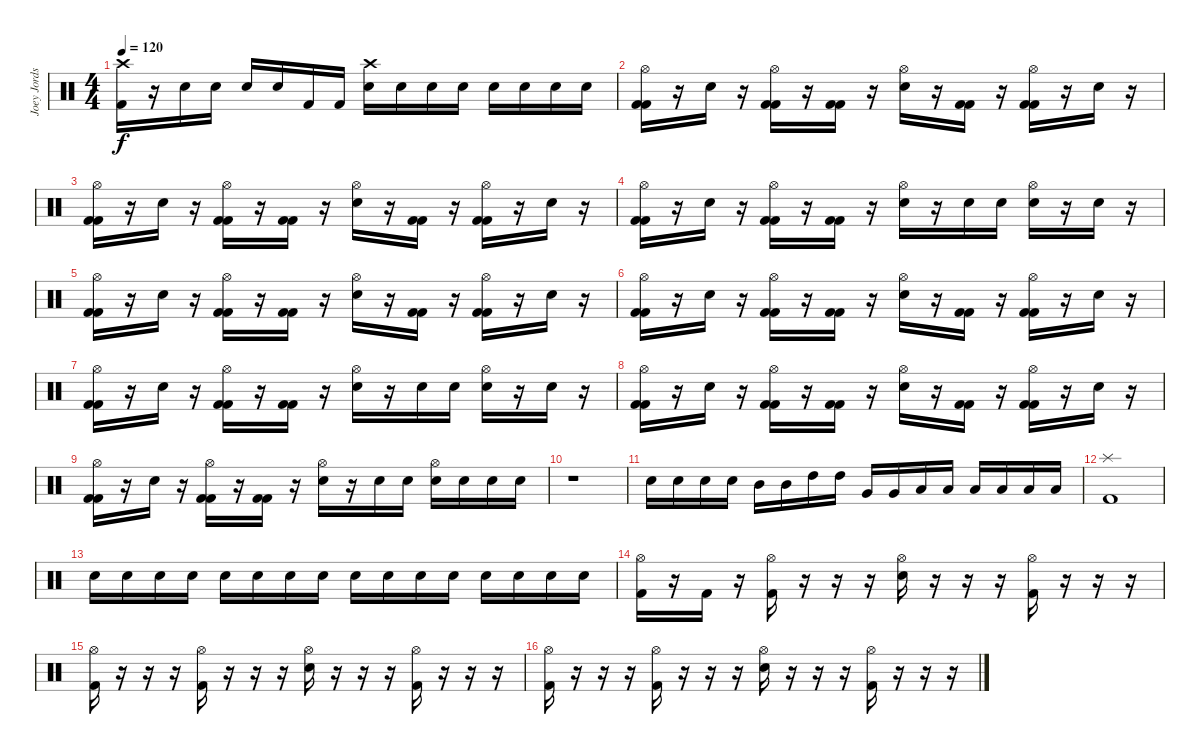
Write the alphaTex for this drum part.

\track ("Joey Jordson" "Joey Jords") {instrument percussion}
\staff {score}
\articulation defaults
\ts (4 4)
\tempo 120
\clef neutral
\ks c
("Crash high (hit)" "Kick (hit) 2").16{dy f} r.16 "Electric Snare (hit)".16 "Electric Snare (hit)".16 "Electric Snare (hit)".16 "Electric Snare (hit)".16 "Kick (hit) 2".16 "Kick (hit) 2".16 ("Crash high (hit)" "Electric Snare (hit)").16 "Electric Snare (hit)".16 "Electric Snare (hit)".16 "Electric Snare (hit)".16 "Electric Snare (hit)".16 "Electric Snare (hit)".16 "Electric Snare (hit)".16 "Electric Snare (hit)".16 |
("Hi-Hat (open)" "Kick (hit) 2" "Kick (hit) 2").16 r.16 "Electric Snare (hit)".16 r.16 ("Hi-Hat (open)" "Kick (hit) 2" "Kick (hit) 2").16 r.16 ("Kick (hit) 2" "Kick (hit) 2").16 r.16 ("Hi-Hat (open)" "Electric Snare (hit)").16 r.16 ("Kick (hit) 2" "Kick (hit) 2").16 r.16 ("Hi-Hat (open)" "Kick (hit) 2" "Kick (hit) 2").16 r.16 "Electric Snare (hit)".16 r.16 |
("Hi-Hat (open)" "Kick (hit) 2" "Kick (hit) 2").16 r.16 "Electric Snare (hit)".16 r.16 ("Hi-Hat (open)" "Kick (hit) 2" "Kick (hit) 2").16 r.16 ("Kick (hit) 2" "Kick (hit) 2").16 r.16 ("Hi-Hat (open)" "Electric Snare (hit)").16 r.16 ("Kick (hit) 2" "Kick (hit) 2").16 r.16 ("Hi-Hat (open)" "Kick (hit) 2" "Kick (hit) 2").16 r.16 "Electric Snare (hit)".16 r.16 |
("Hi-Hat (open)" "Kick (hit) 2" "Kick (hit) 2").16 r.16 "Electric Snare (hit)".16 r.16 ("Hi-Hat (open)" "Kick (hit) 2" "Kick (hit) 2").16 r.16 ("Kick (hit) 2" "Kick (hit) 2").16 r.16 ("Hi-Hat (open)" "Electric Snare (hit)").16 r.16 "Electric Snare (hit)".16 "Electric Snare (hit)".16 ("Hi-Hat (open)" "Electric Snare (hit)").16 r.16 "Electric Snare (hit)".16 r.16 |
("Hi-Hat (open)" "Kick (hit) 2" "Kick (hit) 2").16 r.16 "Electric Snare (hit)".16 r.16 ("Hi-Hat (open)" "Kick (hit) 2" "Kick (hit) 2").16 r.16 ("Kick (hit) 2" "Kick (hit) 2").16 r.16 ("Hi-Hat (open)" "Electric Snare (hit)").16 r.16 ("Kick (hit) 2" "Kick (hit) 2").16 r.16 ("Hi-Hat (open)" "Kick (hit) 2" "Kick (hit) 2").16 r.16 "Electric Snare (hit)".16 r.16 |
("Hi-Hat (open)" "Kick (hit) 2" "Kick (hit) 2").16 r.16 "Electric Snare (hit)".16 r.16 ("Hi-Hat (open)" "Kick (hit) 2" "Kick (hit) 2").16 r.16 ("Kick (hit) 2" "Kick (hit) 2").16 r.16 ("Hi-Hat (open)" "Electric Snare (hit)").16 r.16 ("Kick (hit) 2" "Kick (hit) 2").16 r.16 ("Hi-Hat (open)" "Kick (hit) 2" "Kick (hit) 2").16 r.16 "Electric Snare (hit)".16 r.16 |
("Hi-Hat (open)" "Kick (hit) 2" "Kick (hit) 2").16 r.16 "Electric Snare (hit)".16 r.16 ("Hi-Hat (open)" "Kick (hit) 2" "Kick (hit) 2").16 r.16 ("Kick (hit) 2" "Kick (hit) 2").16 r.16 ("Hi-Hat (open)" "Electric Snare (hit)").16 r.16 "Electric Snare (hit)".16 "Electric Snare (hit)".16 ("Hi-Hat (open)" "Electric Snare (hit)").16 r.16 "Electric Snare (hit)".16 r.16 |
("Hi-Hat (open)" "Kick (hit) 2" "Kick (hit) 2").16 r.16 "Electric Snare (hit)".16 r.16 ("Hi-Hat (open)" "Kick (hit) 2" "Kick (hit) 2").16 r.16 ("Kick (hit) 2" "Kick (hit) 2").16 r.16 ("Hi-Hat (open)" "Electric Snare (hit)").16 r.16 ("Kick (hit) 2" "Kick (hit) 2").16 r.16 ("Hi-Hat (open)" "Kick (hit) 2" "Kick (hit) 2").16 r.16 "Electric Snare (hit)".16 r.16 |
("Hi-Hat (open)" "Kick (hit) 2" "Kick (hit) 2").16 r.16 "Electric Snare (hit)".16 r.16 ("Hi-Hat (open)" "Kick (hit) 2" "Kick (hit) 2").16 r.16 ("Kick (hit) 2" "Kick (hit) 2").16 r.16 ("Hi-Hat (open)" "Electric Snare (hit)").16 r.16 "Electric Snare (hit)".16 "Electric Snare (hit)".16 ("Hi-Hat (open)" "Electric Snare (hit)").16 "Electric Snare (hit)".16 "Electric Snare (hit)".16 "Electric Snare (hit)".16 |
r.1 |
"Electric Snare (hit)".16 "Electric Snare (hit)".16 "Electric Snare (hit)".16 "Electric Snare (hit)".16 "Mid Tom (hit)".16 "Mid Tom (hit)".16 "High Tom (hit)".16 "High Tom (hit)".16 "Very Low Tom (hit)".16 "Very Low Tom (hit)".16 "Low Tom (hit)".16 "Low Tom (hit)".16 "Low Tom (hit)".16 "Low Tom (hit)".16 "Low Tom (hit)".16 "Low Tom (hit)".16 |
("Splash (hit)" "Kick (hit) 2").1 |
"Electric Snare (hit)".16 "Electric Snare (hit)".16 "Electric Snare (hit)".16 "Electric Snare (hit)".16 "Electric Snare (hit)".16 "Electric Snare (hit)".16 "Electric Snare (hit)".16 "Electric Snare (hit)".16 "Electric Snare (hit)".16 "Electric Snare (hit)".16 "Electric Snare (hit)".16 "Electric Snare (hit)".16 "Electric Snare (hit)".16 "Electric Snare (hit)".16 "Electric Snare (hit)".16 "Electric Snare (hit)".16 |
("Hi-Hat (open)" "Kick (hit) 2").16 r.16 "Kick (hit) 2".16 r.16 ("Hi-Hat (open)" "Kick (hit) 2").16 r.16 r.16 r.16 ("Hi-Hat (open)" "Electric Snare (hit)").16 r.16 r.16 r.16 ("Hi-Hat (open)" "Kick (hit) 2").16 r.16 r.16 r.16 |
("Hi-Hat (open)" "Kick (hit) 2").16 r.16 r.16 r.16 ("Hi-Hat (open)" "Kick (hit) 2").16 r.16 r.16 r.16 ("Hi-Hat (open)" "Electric Snare (hit)").16 r.16 r.16 r.16 ("Hi-Hat (open)" "Kick (hit) 2").16 r.16 r.16 r.16 |
("Hi-Hat (open)" "Kick (hit) 2").16 r.16 r.16 r.16 ("Hi-Hat (open)" "Kick (hit) 2").16 r.16 r.16 r.16 ("Hi-Hat (open)" "Electric Snare (hit)").16 r.16 r.16 r.16 ("Hi-Hat (open)" "Kick (hit) 2").16 r.16 r.16 r.16
